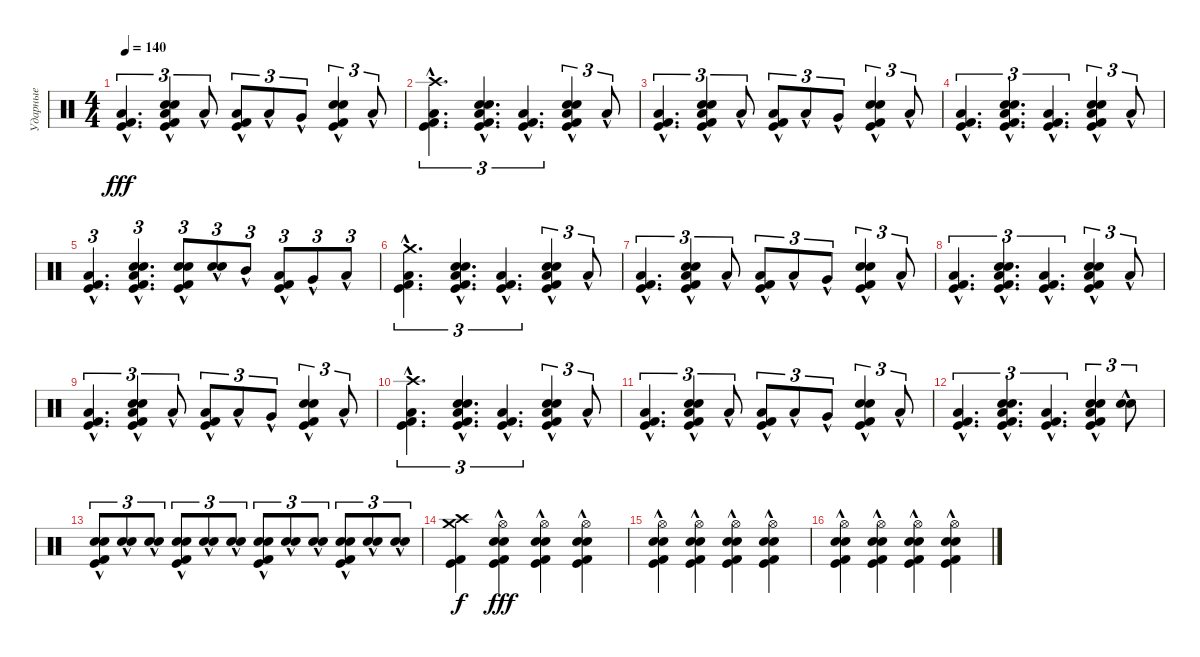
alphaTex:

\track ("Ударные" "Ударные") {instrument percussion}
\staff {score}
\articulation defaults
\ts (4 4)
\tempo 140
\clef neutral
\ks c
("Kick (hit)" "Kick (hit) 2" "Low Floor Tom (hit)"{hac}).4{d tu (3 2) dy fff} ("Kick (hit)" "Kick (hit) 2" "Snare (hit) 2"{hac} "Electric Snare (hit)"{hac} "Low Floor Tom (hit)"{hac}).4{tu (3 2)} "Low Floor Tom (hit)"{hac}.8{tu (3 2)} ("Kick (hit)" "Kick (hit) 2" "Low Floor Tom (hit)"{hac}).8{tu (3 2)} "Low Tom (hit)"{hac}.8{tu (3 2)} "Very Low Tom (hit)"{hac}.8{tu (3 2)} ("Kick (hit)" "Kick (hit) 2" "Snare (hit) 2"{hac} "Electric Snare (hit)"{hac}).4{tu (3 2)} "Low Floor Tom (hit)"{hac}.8{tu (3 2)} |
("Crash high (hit)" "Kick (hit)" "Kick (hit) 2" "Low Floor Tom (hit)"{hac}).4{d tu (3 2)} ("Kick (hit)" "Kick (hit) 2" "Snare (hit) 2"{hac} "Electric Snare (hit)"{hac} "Low Floor Tom (hit)"{hac}).4{d tu (3 2)} ("Kick (hit)" "Kick (hit) 2" "Low Floor Tom (hit)"{hac}).4{d tu (3 2)} ("Kick (hit)" "Kick (hit) 2" "Snare (hit) 2"{hac} "Electric Snare (hit)"{hac} "Low Floor Tom (hit)"{hac}).4{tu (3 2)} "Low Floor Tom (hit)"{hac}.8{tu (3 2)} |
("Kick (hit)" "Kick (hit) 2" "Low Floor Tom (hit)"{hac}).4{d tu (3 2)} ("Kick (hit)" "Kick (hit) 2" "Snare (hit) 2"{hac} "Electric Snare (hit)"{hac} "Low Floor Tom (hit)"{hac}).4{tu (3 2)} "Low Floor Tom (hit)"{hac}.8{tu (3 2)} ("Kick (hit)" "Kick (hit) 2" "Low Floor Tom (hit)"{hac}).8{tu (3 2)} "Low Tom (hit)"{hac}.8{tu (3 2)} "Very Low Tom (hit)"{hac}.8{tu (3 2)} ("Kick (hit)" "Kick (hit) 2" "Snare (hit) 2"{hac} "Electric Snare (hit)"{hac}).4{tu (3 2)} "Low Floor Tom (hit)"{hac}.8{tu (3 2)} |
("Kick (hit)" "Kick (hit) 2" "Low Floor Tom (hit)"{hac}).4{d tu (3 2)} ("Kick (hit)" "Kick (hit) 2" "Snare (hit) 2"{hac} "Electric Snare (hit)"{hac} "Low Floor Tom (hit)"{hac}).4{d tu (3 2)} ("Kick (hit)" "Kick (hit) 2" "Low Floor Tom (hit)"{hac}).4{d tu (3 2)} ("Kick (hit)" "Kick (hit) 2" "Snare (hit) 2"{hac} "Electric Snare (hit)"{hac} "Low Floor Tom (hit)"{hac}).4{tu (3 2)} "Low Floor Tom (hit)"{hac}.8{tu (3 2)} |
("Kick (hit)" "Kick (hit) 2" "Low Floor Tom (hit)"{hac}).4{d tu (3 2)} ("Kick (hit)" "Kick (hit) 2" "Snare (hit) 2"{hac} "Electric Snare (hit)"{hac} "Low Floor Tom (hit)"{hac}).4{d tu (3 2)} ("Kick (hit)" "Kick (hit) 2" "Snare (hit) 2"{hac} "Electric Snare (hit)"{hac}).8{tu (3 2)} ("Snare (hit) 2"{hac} "Electric Snare (hit)"{hac}).8{tu (3 2)} "Mid Tom (hit)"{hac}.8{tu (3 2)} ("Kick (hit)" "Kick (hit) 2" "Low Tom (hit)"{hac}).8{tu (3 2)} "Very Low Tom (hit)"{hac}.8{tu (3 2)} "Low Floor Tom (hit)"{hac}.8{tu (3 2)} |
("Crash medium (hit)" "Kick (hit)" "Kick (hit) 2" "Low Floor Tom (hit)"{hac}).4{d tu (3 2)} ("Kick (hit)" "Kick (hit) 2" "Snare (hit) 2"{hac} "Electric Snare (hit)"{hac} "Low Floor Tom (hit)"{hac}).4{d tu (3 2)} ("Kick (hit)" "Kick (hit) 2" "Low Floor Tom (hit)"{hac}).4{d tu (3 2)} ("Kick (hit)" "Kick (hit) 2" "Snare (hit) 2"{hac} "Electric Snare (hit)"{hac} "Low Floor Tom (hit)"{hac}).4{tu (3 2)} "Low Floor Tom (hit)"{hac}.8{tu (3 2)} |
("Kick (hit)" "Kick (hit) 2" "Low Floor Tom (hit)"{hac}).4{d tu (3 2)} ("Kick (hit)" "Kick (hit) 2" "Snare (hit) 2"{hac} "Electric Snare (hit)"{hac} "Low Floor Tom (hit)"{hac}).4{tu (3 2)} "Low Floor Tom (hit)"{hac}.8{tu (3 2)} ("Kick (hit)" "Kick (hit) 2" "Low Floor Tom (hit)"{hac}).8{tu (3 2)} "Low Tom (hit)"{hac}.8{tu (3 2)} "Very Low Tom (hit)"{hac}.8{tu (3 2)} ("Kick (hit)" "Kick (hit) 2" "Snare (hit) 2"{hac} "Electric Snare (hit)"{hac}).4{tu (3 2)} "Low Floor Tom (hit)"{hac}.8{tu (3 2)} |
("Kick (hit)" "Kick (hit) 2" "Low Floor Tom (hit)"{hac}).4{d tu (3 2)} ("Kick (hit)" "Kick (hit) 2" "Snare (hit) 2"{hac} "Electric Snare (hit)"{hac} "Low Floor Tom (hit)"{hac}).4{d tu (3 2)} ("Kick (hit)" "Kick (hit) 2" "Low Floor Tom (hit)"{hac}).4{d tu (3 2)} ("Kick (hit)" "Kick (hit) 2" "Snare (hit) 2"{hac} "Electric Snare (hit)"{hac} "Low Floor Tom (hit)"{hac}).4{tu (3 2)} "Low Floor Tom (hit)"{hac}.8{tu (3 2)} |
("Kick (hit)" "Kick (hit) 2" "Low Floor Tom (hit)"{hac}).4{d tu (3 2)} ("Kick (hit)" "Kick (hit) 2" "Snare (hit) 2"{hac} "Electric Snare (hit)"{hac} "Low Floor Tom (hit)"{hac}).4{tu (3 2)} "Low Floor Tom (hit)"{hac}.8{tu (3 2)} ("Kick (hit)" "Kick (hit) 2" "Low Floor Tom (hit)"{hac}).8{tu (3 2)} "Low Tom (hit)"{hac}.8{tu (3 2)} "Very Low Tom (hit)"{hac}.8{tu (3 2)} ("Kick (hit)" "Kick (hit) 2" "Snare (hit) 2"{hac} "Electric Snare (hit)"{hac}).4{tu (3 2)} "Low Floor Tom (hit)"{hac}.8{tu (3 2)} |
("Crash high (hit)" "Kick (hit)" "Kick (hit) 2" "Low Floor Tom (hit)"{hac}).4{d tu (3 2)} ("Kick (hit)" "Kick (hit) 2" "Snare (hit) 2"{hac} "Electric Snare (hit)"{hac} "Low Floor Tom (hit)"{hac}).4{d tu (3 2)} ("Kick (hit)" "Kick (hit) 2" "Low Floor Tom (hit)"{hac}).4{d tu (3 2)} ("Kick (hit)" "Kick (hit) 2" "Snare (hit) 2"{hac} "Electric Snare (hit)"{hac} "Low Floor Tom (hit)"{hac}).4{tu (3 2)} "Low Floor Tom (hit)"{hac}.8{tu (3 2)} |
("Kick (hit)" "Kick (hit) 2" "Low Floor Tom (hit)"{hac}).4{d tu (3 2)} ("Kick (hit)" "Kick (hit) 2" "Snare (hit) 2"{hac} "Electric Snare (hit)"{hac} "Low Floor Tom (hit)"{hac}).4{tu (3 2)} "Low Floor Tom (hit)"{hac}.8{tu (3 2)} ("Kick (hit)" "Kick (hit) 2" "Low Floor Tom (hit)"{hac}).8{tu (3 2)} "Low Tom (hit)"{hac}.8{tu (3 2)} "Very Low Tom (hit)"{hac}.8{tu (3 2)} ("Kick (hit)" "Kick (hit) 2" "Snare (hit) 2"{hac} "Electric Snare (hit)"{hac}).4{tu (3 2)} "Low Floor Tom (hit)"{hac}.8{tu (3 2)} |
("Kick (hit)" "Kick (hit) 2" "Low Floor Tom (hit)"{hac}).4{d tu (3 2)} ("Kick (hit)" "Kick (hit) 2" "Snare (hit) 2"{hac} "Electric Snare (hit)"{hac} "Low Floor Tom (hit)"{hac}).4{d tu (3 2)} ("Kick (hit)" "Kick (hit) 2" "Low Floor Tom (hit)"{hac}).4{d tu (3 2)} ("Kick (hit)" "Kick (hit) 2" "Snare (hit) 2"{hac} "Electric Snare (hit)"{hac} "Low Floor Tom (hit)"{hac}).4{tu (3 2)} ("Snare (hit) 2"{hac} "Electric Snare (hit)"{hac}).8{tu (3 2)} |
("Kick (hit)" "Kick (hit) 2" "Snare (hit) 2"{hac} "Electric Snare (hit)"{hac}).8{tu (3 2)} ("Snare (hit) 2"{hac} "Electric Snare (hit)"{hac}).8{tu (3 2)} ("Snare (hit) 2"{hac} "Electric Snare (hit)"{hac}).8{tu (3 2)} ("Kick (hit)" "Kick (hit) 2" "Snare (hit) 2"{hac} "Electric Snare (hit)"{hac}).8{tu (3 2)} ("Snare (hit) 2"{hac} "Electric Snare (hit)"{hac}).8{tu (3 2)} ("Snare (hit) 2"{hac} "Electric Snare (hit)"{hac}).8{tu (3 2)} ("Kick (hit)" "Kick (hit) 2" "Snare (hit) 2"{hac} "Electric Snare (hit)"{hac}).8{tu (3 2)} ("Snare (hit) 2"{hac} "Electric Snare (hit)"{hac}).8{tu (3 2)} ("Snare (hit) 2"{hac} "Electric Snare (hit)"{hac}).8{tu (3 2)} ("Kick (hit)" "Kick (hit) 2" "Snare (hit) 2"{hac} "Electric Snare (hit)"{hac}).8{tu (3 2)} ("Snare (hit) 2"{hac} "Electric Snare (hit)"{hac}).8{tu (3 2)} ("Snare (hit) 2"{hac} "Electric Snare (hit)"{hac}).8{tu (3 2)} |
("Crash medium (hit)" "Kick (hit)" "Kick (hit) 2" "Crash high (hit)").4{dy f} ("Hi-Hat (open)" "Kick (hit)" "Kick (hit) 2" "Snare (hit) 2"{hac} "Electric Snare (hit)"{hac}).4{dy fff} ("Hi-Hat (open)" "Kick (hit)" "Kick (hit) 2" "Snare (hit) 2"{hac} "Electric Snare (hit)"{hac}).4 ("Hi-Hat (open)" "Kick (hit)" "Kick (hit) 2" "Snare (hit) 2"{hac} "Electric Snare (hit)"{hac}).4 |
("Hi-Hat (open)" "Kick (hit)" "Kick (hit) 2" "Snare (hit) 2"{hac} "Electric Snare (hit)"{hac}).4 ("Hi-Hat (open)" "Kick (hit)" "Kick (hit) 2" "Snare (hit) 2"{hac} "Electric Snare (hit)"{hac}).4 ("Hi-Hat (open)" "Kick (hit)" "Kick (hit) 2" "Snare (hit) 2"{hac} "Electric Snare (hit)"{hac}).4 ("Hi-Hat (open)" "Kick (hit)" "Kick (hit) 2" "Snare (hit) 2"{hac} "Electric Snare (hit)"{hac}).4 |
("Hi-Hat (open)" "Kick (hit)" "Kick (hit) 2" "Snare (hit) 2"{hac} "Electric Snare (hit)"{hac}).4 ("Hi-Hat (open)" "Kick (hit)" "Kick (hit) 2" "Snare (hit) 2"{hac} "Electric Snare (hit)"{hac}).4 ("Hi-Hat (open)" "Kick (hit)" "Kick (hit) 2" "Snare (hit) 2"{hac} "Electric Snare (hit)"{hac}).4 ("Hi-Hat (open)" "Kick (hit)" "Kick (hit) 2" "Snare (hit) 2"{hac} "Electric Snare (hit)"{hac}).4
